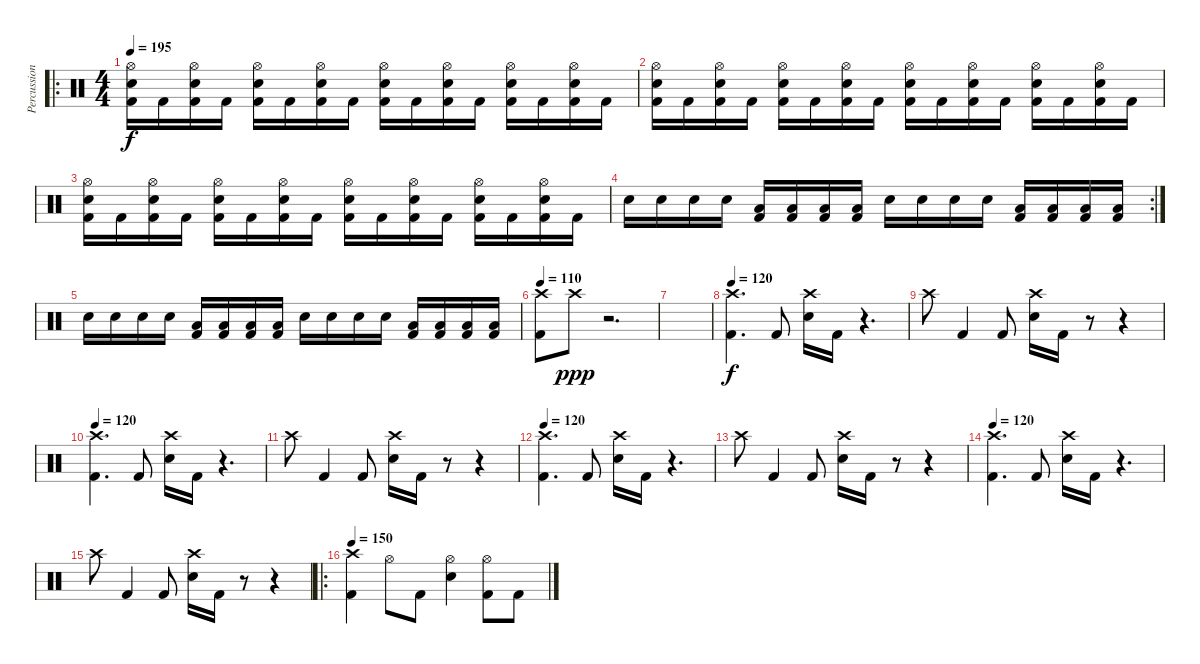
\track ("Percussion" "Percussion") {instrument percussion}
\staff {score}
\articulation defaults
\ro
\ts (4 4)
\tempo 195
\clef neutral
\ks c
("Hi-Hat (open)" "Snare (hit) 2" "Kick (hit) 2").16{dy f} "Kick (hit) 2".16 ("Hi-Hat (open)" "Snare (hit) 2" "Kick (hit) 2").16 "Kick (hit) 2".16 ("Hi-Hat (open)" "Snare (hit) 2" "Kick (hit) 2").16 "Kick (hit) 2".16 ("Hi-Hat (open)" "Snare (hit) 2" "Kick (hit) 2").16 "Kick (hit) 2".16 ("Hi-Hat (open)" "Snare (hit) 2" "Kick (hit) 2").16 "Kick (hit) 2".16 ("Hi-Hat (open)" "Snare (hit) 2" "Kick (hit) 2").16 "Kick (hit) 2".16 ("Hi-Hat (open)" "Snare (hit) 2" "Kick (hit) 2").16 "Kick (hit) 2".16 ("Hi-Hat (open)" "Snare (hit) 2" "Kick (hit) 2").16 "Kick (hit) 2".16 |
("Hi-Hat (open)" "Snare (hit) 2" "Kick (hit) 2").16 "Kick (hit) 2".16 ("Hi-Hat (open)" "Snare (hit) 2" "Kick (hit) 2").16 "Kick (hit) 2".16 ("Hi-Hat (open)" "Snare (hit) 2" "Kick (hit) 2").16 "Kick (hit) 2".16 ("Hi-Hat (open)" "Snare (hit) 2" "Kick (hit) 2").16 "Kick (hit) 2".16 ("Hi-Hat (open)" "Snare (hit) 2" "Kick (hit) 2").16 "Kick (hit) 2".16 ("Hi-Hat (open)" "Snare (hit) 2" "Kick (hit) 2").16 "Kick (hit) 2".16 ("Hi-Hat (open)" "Snare (hit) 2" "Kick (hit) 2").16 "Kick (hit) 2".16 ("Hi-Hat (open)" "Snare (hit) 2" "Kick (hit) 2").16 "Kick (hit) 2".16 |
("Hi-Hat (open)" "Snare (hit) 2" "Kick (hit) 2").16 "Kick (hit) 2".16 ("Hi-Hat (open)" "Snare (hit) 2" "Kick (hit) 2").16 "Kick (hit) 2".16 ("Hi-Hat (open)" "Snare (hit) 2" "Kick (hit) 2").16 "Kick (hit) 2".16 ("Hi-Hat (open)" "Snare (hit) 2" "Kick (hit) 2").16 "Kick (hit) 2".16 ("Hi-Hat (open)" "Snare (hit) 2" "Kick (hit) 2").16 "Kick (hit) 2".16 ("Hi-Hat (open)" "Snare (hit) 2" "Kick (hit) 2").16 "Kick (hit) 2".16 ("Hi-Hat (open)" "Snare (hit) 2" "Kick (hit) 2").16 "Kick (hit) 2".16 ("Hi-Hat (open)" "Snare (hit) 2" "Kick (hit) 2").16 "Kick (hit) 2".16 |
\rc 2 "Snare (hit) 2".16 "Snare (hit) 2".16 "Snare (hit) 2".16 "Snare (hit) 2".16
("Low Tom (hit)" "Kick (hit) 2").16 ("Low Tom (hit)" "Kick (hit) 2").16 ("Low Tom (hit)" "Kick (hit) 2").16 ("Low Tom (hit)" "Kick (hit) 2").16 "Snare (hit) 2".16 "Snare (hit) 2".16 "Snare (hit) 2".16 "Snare (hit) 2".16 ("Low Tom (hit)" "Kick (hit) 2").16 ("Low Tom (hit)" "Kick (hit) 2").16 ("Low Tom (hit)" "Kick (hit) 2").16 ("Low Tom (hit)" "Kick (hit) 2").16 |
"Snare (hit) 2".16 "Snare (hit) 2".16 "Snare (hit) 2".16 "Snare (hit) 2".16 ("Low Tom (hit)" "Kick (hit) 2").16 ("Low Tom (hit)" "Kick (hit) 2").16 ("Low Tom (hit)" "Kick (hit) 2").16 ("Low Tom (hit)" "Kick (hit) 2").16 "Snare (hit) 2".16 "Snare (hit) 2".16 "Snare (hit) 2".16 "Snare (hit) 2".16 ("Low Tom (hit)" "Kick (hit) 2").16 ("Low Tom (hit)" "Kick (hit) 2").16 ("Low Tom (hit)" "Kick (hit) 2").16 ("Low Tom (hit)" "Kick (hit) 2").16 |
\tempo 110
("Crash high (hit)" "Kick (hit) 2").8 "Crash high (hit)".8{dy ppp} r.2{d} |
|
\tempo 120
("Crash high (hit)" "Kick (hit) 2").4{d dy f} "Kick (hit) 2".8 ("Crash high (hit)" "Snare (hit) 2").16 "Kick (hit) 2".16 r.4{d} |
"Crash high (hit)".8 "Kick (hit) 2".4 "Kick (hit) 2".8 ("Crash high (hit)" "Snare (hit) 2").16 "Kick (hit) 2".16 r.8 r.4 |
\tempo 120
("Crash high (hit)" "Kick (hit) 2").4{d} "Kick (hit) 2".8 ("Crash high (hit)" "Snare (hit) 2").16 "Kick (hit) 2".16 r.4{d} |
"Crash high (hit)".8 "Kick (hit) 2".4 "Kick (hit) 2".8 ("Crash high (hit)" "Snare (hit) 2").16 "Kick (hit) 2".16 r.8 r.4 |
\tempo 120
("Crash high (hit)" "Kick (hit) 2").4{d} "Kick (hit) 2".8 ("Crash high (hit)" "Snare (hit) 2").16 "Kick (hit) 2".16 r.4{d} |
"Crash high (hit)".8 "Kick (hit) 2".4 "Kick (hit) 2".8 ("Crash high (hit)" "Snare (hit) 2").16 "Kick (hit) 2".16 r.8 r.4 |
\tempo 120
("Crash high (hit)" "Kick (hit) 2").4{d} "Kick (hit) 2".8 ("Crash high (hit)" "Snare (hit) 2").16 "Kick (hit) 2".16 r.4{d} |
"Crash high (hit)".8 "Kick (hit) 2".4 "Kick (hit) 2".8 ("Crash high (hit)" "Snare (hit) 2").16 "Kick (hit) 2".16 r.8 r.4 |
\ro
\tempo 150
("Crash high (hit)" "Kick (hit) 2").4 "Hi-Hat (open)".8 "Kick (hit) 2".8 ("Hi-Hat (open)" "Snare (hit) 2").4 ("Hi-Hat (open)" "Kick (hit) 2").8 "Kick (hit) 2".8
